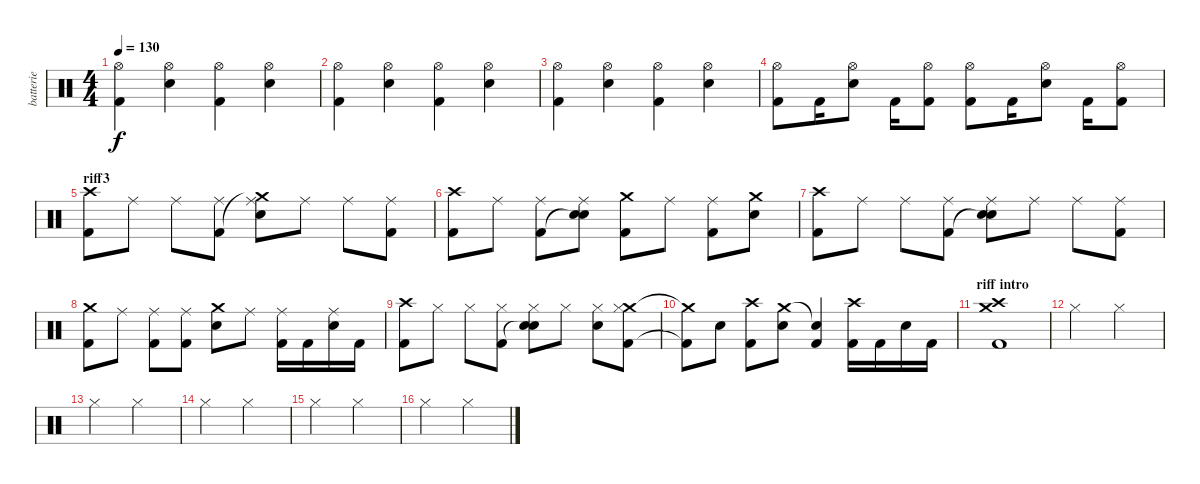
\track ("batterie" "batterie") {instrument percussion}
\staff {score}
\articulation defaults
\ts (4 4)
\tempo 130
\clef neutral
\ks c
("Kick (hit) 2" "Hi-Hat (open)").4{dy f} ("Snare (hit) 2" "Hi-Hat (open)").4 ("Kick (hit) 2" "Hi-Hat (open)").4 ("Snare (hit) 2" "Hi-Hat (open)").4 |
("Kick (hit) 2" "Hi-Hat (open)").4 ("Snare (hit) 2" "Hi-Hat (open)").4 ("Kick (hit) 2" "Hi-Hat (open)").4 ("Snare (hit) 2" "Hi-Hat (open)").4 |
("Kick (hit) 2" "Hi-Hat (open)").4 ("Snare (hit) 2" "Hi-Hat (open)").4 ("Kick (hit) 2" "Hi-Hat (open)").4 ("Snare (hit) 2" "Hi-Hat (open)").4 |
("Kick (hit) 2" "Hi-Hat (open)").8 "Kick (hit) 2".16 ("Snare (hit) 2" "Hi-Hat (open)").8 "Kick (hit) 2".16 ("Kick (hit) 2" "Hi-Hat (open)").8 ("Kick (hit) 2" "Hi-Hat (open)").8 "Kick (hit) 2".16 ("Snare (hit) 2" "Hi-Hat (open)").8 "Kick (hit) 2".16 ("Kick (hit) 2" "Hi-Hat (open)").8 |
\section ("" "riff3")
("Crash high (hit)" "Kick (hit) 2").8 "Ride (middle)".8 "Ride (middle)".8 ("Kick (hit) 2" "Ride (middle)").8 ("Crash medium (hit)"{t} "Snare (hit) 2" "Ride (middle)").8 "Ride (middle)".8 "Ride (middle)".8 ("Kick (hit) 2" "Ride (middle)").8 |
("Crash high (hit)" "Kick (hit) 2").8 "Ride (middle)".8 ("Kick (hit) 2" "Ride (middle)").8 ("Snare (hit)"{t} "Snare (hit) 2" "Ride (middle)").8 ("Crash medium (hit)" "Kick (hit) 2").8 "Ride (middle)".8 ("Kick (hit) 2" "Ride (middle)").8 ("Crash medium (hit)" "Snare (hit) 2").8 |
("Crash high (hit)" "Kick (hit) 2").8 "Ride (middle)".8 "Ride (middle)".8 ("Kick (hit) 2" "Ride (middle)").8 ("Snare (hit)"{t} "Snare (hit) 2" "Ride (middle)").8 "Ride (middle)".8 "Ride (middle)".8 ("Kick (hit) 2" "Ride (middle)").8 |
("Crash medium (hit)" "Kick (hit) 2").8 "Ride (middle)".8 ("Kick (hit) 2" "Ride (middle)").8 ("Kick (hit) 2" "Ride (middle)").8 ("Crash medium (hit)" "Snare (hit) 2").8 "Ride (middle)".8 ("Kick (hit) 2" "Ride (middle)").16 "Kick (hit) 2".16 ("Snare (hit) 2" "Ride (middle)").16 "Kick (hit) 2".16 |
("Crash high (hit)" "Kick (hit) 2").8 "Hi-Hat (closed)".8 "Hi-Hat (closed)".8 ("Kick (hit) 2" "Hi-Hat (closed)").8 ("Snare (hit)"{t} "Snare (hit) 2" "Hi-Hat (closed)").8 "Hi-Hat (closed)".8 ("Snare (hit) 2" "Hi-Hat (closed)").8 ("Crash medium (hit)" "Kick (hit) 2" "Hi-Hat (closed)").8 |
("Crash medium (hit)"{t} "Kick (hit) 2"{t}).8 "Snare (hit) 2".8 ("Crash high (hit)" "Kick (hit) 2").8 ("Crash medium (hit)" "Snare (hit) 2").8 ("Snare (hit)"{t} "Kick (hit) 2").4 ("Crash high (hit)" "Kick (hit) 2").16 "Kick (hit) 2".16 "Snare (hit) 2".16 "Kick (hit) 2".16 |
\section ("" "riff intro")
("Crash high (hit)" "Crash medium (hit)" "Kick (hit) 2").1 |
"Hi-Hat (closed)".2 "Hi-Hat (closed)".2 |
"Hi-Hat (closed)".2 "Hi-Hat (closed)".2 |
"Hi-Hat (closed)".2 "Hi-Hat (closed)".2 |
"Hi-Hat (closed)".2 "Hi-Hat (closed)".2 |
"Hi-Hat (closed)".2 "Hi-Hat (closed)".2
